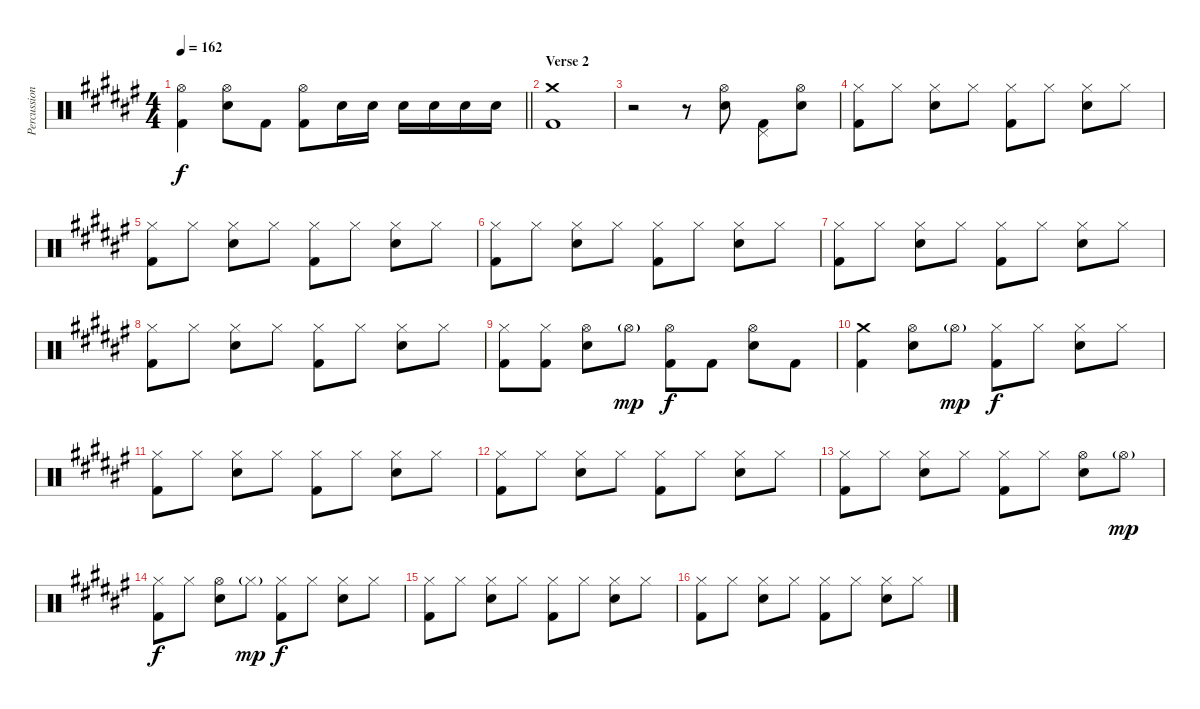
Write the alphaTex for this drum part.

\track ("Percussion" "Percussion") {instrument percussion}
\staff {score}
\articulation defaults
\ts (4 4)
\tempo 162
\clef neutral
\barLineRight lightlight
\ks f#
("Hi-Hat (open)" "Kick (hit) 2").4{dy f} ("Hi-Hat (open)" "Electric Snare (hit)").8 "Kick (hit) 2".8 ("Hi-Hat (open)" "Kick (hit) 2").8 "Electric Snare (hit)".16 "Electric Snare (hit)".16 "Electric Snare (hit)".16 "Electric Snare (hit)".16 "Electric Snare (hit)".16 "Electric Snare (hit)".16 |
\section ("" "Verse 2")
("Crash medium (hit)" "Kick (hit) 2").1 |
r.2 r.8 ("Hi-Hat (open)" "Electric Snare (hit)").8 ("Pedal Hi-Hat (hit)" "Kick (hit) 2").8 ("Hi-Hat (open)" "Electric Snare (hit)").8 |
("Hi-Hat (closed)" "Kick (hit) 2").8 "Hi-Hat (closed)".8 ("Hi-Hat (closed)" "Electric Snare (hit)").8 "Hi-Hat (closed)".8 ("Hi-Hat (closed)" "Kick (hit) 2").8 "Hi-Hat (closed)".8 ("Hi-Hat (closed)" "Electric Snare (hit)").8 "Hi-Hat (closed)".8 |
("Hi-Hat (closed)" "Kick (hit) 2").8 "Hi-Hat (closed)".8 ("Hi-Hat (closed)" "Electric Snare (hit)").8 "Hi-Hat (closed)".8 ("Hi-Hat (closed)" "Kick (hit) 2").8 "Hi-Hat (closed)".8 ("Hi-Hat (closed)" "Electric Snare (hit)").8 "Hi-Hat (closed)".8 |
("Hi-Hat (closed)" "Kick (hit) 2").8 "Hi-Hat (closed)".8 ("Hi-Hat (closed)" "Electric Snare (hit)").8 "Hi-Hat (closed)".8 ("Hi-Hat (closed)" "Kick (hit) 2").8 "Hi-Hat (closed)".8 ("Hi-Hat (closed)" "Electric Snare (hit)").8 "Hi-Hat (closed)".8 |
("Hi-Hat (closed)" "Kick (hit) 2").8 "Hi-Hat (closed)".8 ("Hi-Hat (closed)" "Electric Snare (hit)").8 "Hi-Hat (closed)".8 ("Hi-Hat (closed)" "Kick (hit) 2").8 "Hi-Hat (closed)".8 ("Hi-Hat (closed)" "Electric Snare (hit)").8 "Hi-Hat (closed)".8 |
("Hi-Hat (closed)" "Kick (hit) 2").8 "Hi-Hat (closed)".8 ("Hi-Hat (closed)" "Electric Snare (hit)").8 "Hi-Hat (closed)".8 ("Hi-Hat (closed)" "Kick (hit) 2").8 "Hi-Hat (closed)".8 ("Hi-Hat (closed)" "Electric Snare (hit)").8 "Hi-Hat (closed)".8 |
("Hi-Hat (closed)" "Kick (hit) 2").8 ("Hi-Hat (closed)" "Kick (hit) 2").8 ("Hi-Hat (open)" "Electric Snare (hit)").8 "Hi-Hat (open)"{g}.8{dy mp} ("Hi-Hat (open)" "Kick (hit) 2").8{dy f} "Kick (hit) 2".8 ("Hi-Hat (open)" "Electric Snare (hit)").8 "Kick (hit) 2".8 |
("Crash medium (hit)" "Kick (hit) 2").4 ("Hi-Hat (open)" "Electric Snare (hit)").8 "Hi-Hat (open)"{g}.8{dy mp} ("Hi-Hat (closed)" "Kick (hit) 2").8{dy f} "Hi-Hat (closed)".8 ("Hi-Hat (closed)" "Electric Snare (hit)").8 "Hi-Hat (closed)".8 |
("Hi-Hat (closed)" "Kick (hit) 2").8 "Hi-Hat (closed)".8 ("Hi-Hat (closed)" "Electric Snare (hit)").8 "Hi-Hat (closed)".8 ("Hi-Hat (closed)" "Kick (hit) 2").8 "Hi-Hat (closed)".8 ("Hi-Hat (closed)" "Electric Snare (hit)").8 "Hi-Hat (closed)".8 |
("Hi-Hat (closed)" "Kick (hit) 2").8 "Hi-Hat (closed)".8 ("Hi-Hat (closed)" "Electric Snare (hit)").8 "Hi-Hat (closed)".8 ("Hi-Hat (closed)" "Kick (hit) 2").8 "Hi-Hat (closed)".8 ("Hi-Hat (closed)" "Electric Snare (hit)").8 "Hi-Hat (closed)".8 |
("Hi-Hat (closed)" "Kick (hit) 2").8 "Hi-Hat (closed)".8 ("Hi-Hat (closed)" "Electric Snare (hit)").8 "Hi-Hat (closed)".8 ("Hi-Hat (closed)" "Kick (hit) 2").8 "Hi-Hat (closed)".8 ("Hi-Hat (open)" "Electric Snare (hit)").8 "Hi-Hat (open)"{g}.8{dy mp} |
("Hi-Hat (closed)" "Kick (hit) 2").8{dy f} "Hi-Hat (closed)".8 ("Hi-Hat (open)" "Electric Snare (hit)").8 "Hi-Hat (closed)"{g}.8{dy mp} ("Hi-Hat (closed)" "Kick (hit) 2").8{dy f} "Hi-Hat (closed)".8 ("Hi-Hat (closed)" "Electric Snare (hit)").8 "Hi-Hat (closed)".8 |
("Hi-Hat (closed)" "Kick (hit) 2").8 "Hi-Hat (closed)".8 ("Hi-Hat (closed)" "Electric Snare (hit)").8 "Hi-Hat (closed)".8 ("Hi-Hat (closed)" "Kick (hit) 2").8 "Hi-Hat (closed)".8 ("Hi-Hat (closed)" "Electric Snare (hit)").8 "Hi-Hat (closed)".8 |
("Hi-Hat (closed)" "Kick (hit) 2").8 "Hi-Hat (closed)".8 ("Hi-Hat (closed)" "Electric Snare (hit)").8 "Hi-Hat (closed)".8 ("Hi-Hat (closed)" "Kick (hit) 2").8 "Hi-Hat (closed)".8 ("Hi-Hat (closed)" "Electric Snare (hit)").8 "Hi-Hat (closed)".8
